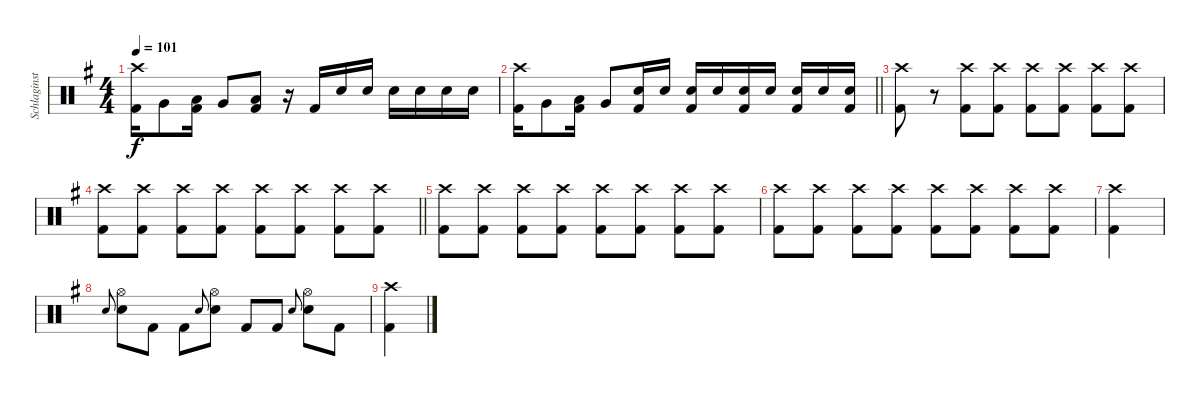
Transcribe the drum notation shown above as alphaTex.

\track ("Schlaginstrumente - Auswahl" "Schlaginst") {instrument percussion}
\staff {score}
\articulation defaults
\ts (4 4)
\tempo 101
\clef neutral
\ks g
("Crash high (hit)" "Kick (hit) 2").16{dy f} "Very Low Tom (hit)".8 ("Low Floor Tom (hit)" "Kick (hit) 2").16 "Very Low Tom (hit)".8 ("Low Floor Tom (hit)" "Kick (hit) 2").8 r.16 "Kick (hit) 2".16 "Electric Snare (hit)".16 "Electric Snare (hit)".16 "Electric Snare (hit)".16 "Electric Snare (hit)".16 "Electric Snare (hit)".16 "Electric Snare (hit)".16 |
\barLineRight lightlight
("Crash high (hit)" "Kick (hit) 2").16 "Very Low Tom (hit)".8 ("Low Floor Tom (hit)" "Kick (hit) 2").16 "Very Low Tom (hit)".8 ("Electric Snare (hit)" "Kick (hit) 2").16 "Electric Snare (hit)".16 ("Electric Snare (hit)" "Kick (hit) 2").16 "Electric Snare (hit)".16 ("Electric Snare (hit)" "Kick (hit) 2").16 "Electric Snare (hit)".16 ("Electric Snare (hit)" "Kick (hit) 2").16 "Electric Snare (hit)".16 ("Electric Snare (hit)" "Kick (hit) 2").16 |
("Crash high (hit)" "Kick (hit) 2").8 r.8 ("Crash high (hit)" "Kick (hit) 2").8 ("Crash high (hit)" "Kick (hit) 2").8 ("Crash high (hit)" "Kick (hit) 2").8 ("Crash high (hit)" "Kick (hit) 2").8 ("Crash high (hit)" "Kick (hit) 2").8 ("Crash high (hit)" "Kick (hit) 2").8 |
\barLineRight lightlight
("Crash high (hit)" "Kick (hit) 2").8 ("Crash high (hit)" "Kick (hit) 2").8 ("Crash high (hit)" "Kick (hit) 2").8 ("Crash high (hit)" "Kick (hit) 2").8 ("Crash high (hit)" "Kick (hit) 2").8 ("Crash high (hit)" "Kick (hit) 2").8 ("Crash high (hit)" "Kick (hit) 2").8 ("Crash high (hit)" "Kick (hit) 2").8 |
("Crash high (hit)" "Kick (hit) 2").8 ("Crash high (hit)" "Kick (hit) 2").8 ("Crash high (hit)" "Kick (hit) 2").8 ("Crash high (hit)" "Kick (hit) 2").8 ("Crash high (hit)" "Kick (hit) 2").8 ("Crash high (hit)" "Kick (hit) 2").8 ("Crash high (hit)" "Kick (hit) 2").8 ("Crash high (hit)" "Kick (hit) 2").8 |
("Crash high (hit)" "Kick (hit) 2").8 ("Crash high (hit)" "Kick (hit) 2").8 ("Crash high (hit)" "Kick (hit) 2").8 ("Crash high (hit)" "Kick (hit) 2").8 ("Crash high (hit)" "Kick (hit) 2").8 ("Crash high (hit)" "Kick (hit) 2").8 ("Crash high (hit)" "Kick (hit) 2").8 ("Crash high (hit)" "Kick (hit) 2").8 |
("Crash high (hit)" "Kick (hit) 2").4 |
"Electric Snare (hit)".8{gr onbeat} ("Hi-Hat (open)" "Electric Snare (hit)").8 "Kick (hit) 2".8 "Kick (hit) 2".8 "Electric Snare (hit)".8{gr onbeat} ("Hi-Hat (open)" "Electric Snare (hit)").8 "Kick (hit) 2".8 "Kick (hit) 2".8 "Electric Snare (hit)".8{gr onbeat} ("Hi-Hat (open)" "Electric Snare (hit)").8 "Kick (hit) 2".8 |
("Crash high (hit)" "Kick (hit) 2").4
